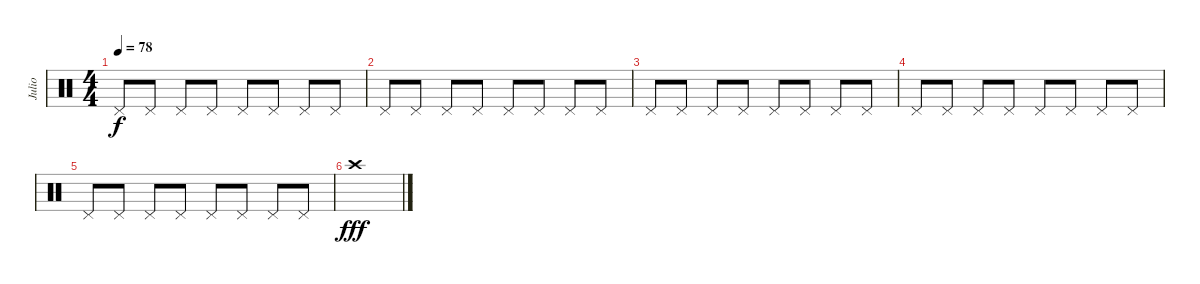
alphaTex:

\track ("Julio" "Julio") {instrument percussion}
\staff {score}
\articulation defaults
\ts (4 4)
\tempo 78
\clef neutral
\ks c "Pedal Hi-Hat (hit)".8{dy f} "Pedal Hi-Hat (hit)".8 "Pedal Hi-Hat (hit)".8 "Pedal Hi-Hat (hit)".8 "Pedal Hi-Hat (hit)".8 "Pedal Hi-Hat (hit)".8 "Pedal Hi-Hat (hit)".8 "Pedal Hi-Hat (hit)".8
|
"Pedal Hi-Hat (hit)".8 "Pedal Hi-Hat (hit)".8 "Pedal Hi-Hat (hit)".8 "Pedal Hi-Hat (hit)".8 "Pedal Hi-Hat (hit)".8 "Pedal Hi-Hat (hit)".8 "Pedal Hi-Hat (hit)".8 "Pedal Hi-Hat (hit)".8 |
"Pedal Hi-Hat (hit)".8 "Pedal Hi-Hat (hit)".8 "Pedal Hi-Hat (hit)".8 "Pedal Hi-Hat (hit)".8 "Pedal Hi-Hat (hit)".8 "Pedal Hi-Hat (hit)".8 "Pedal Hi-Hat (hit)".8 "Pedal Hi-Hat (hit)".8 |
"Pedal Hi-Hat (hit)".8 "Pedal Hi-Hat (hit)".8 "Pedal Hi-Hat (hit)".8 "Pedal Hi-Hat (hit)".8 "Pedal Hi-Hat (hit)".8 "Pedal Hi-Hat (hit)".8 "Pedal Hi-Hat (hit)".8 "Pedal Hi-Hat (hit)".8 |
"Pedal Hi-Hat (hit)".8 "Pedal Hi-Hat (hit)".8 "Pedal Hi-Hat (hit)".8 "Pedal Hi-Hat (hit)".8 "Pedal Hi-Hat (hit)".8 "Pedal Hi-Hat (hit)".8 "Pedal Hi-Hat (hit)".8 "Pedal Hi-Hat (hit)".8 |
"Crash high (hit)".1{dy fff}
